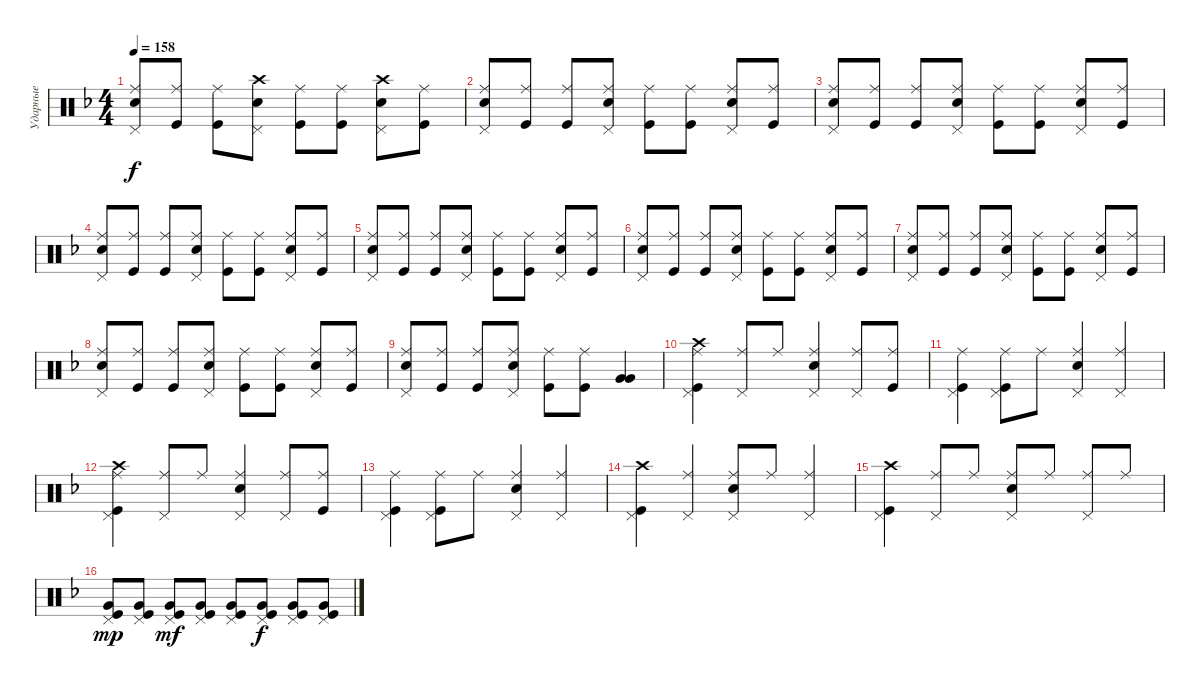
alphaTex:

\track ("Ударные" "Ударные") {instrument percussion}
\staff {score}
\articulation defaults
\ts (4 4)
\tempo 158
\clef neutral
\ks dminor
("Snare (hit) 2" "Ride (middle)" "Pedal Hi-Hat (hit)").8{dy f} ("Kick (hit)" "Ride (middle)").8 ("Kick (hit)" "Ride (middle)").8 ("Snare (hit) 2" "Crash high (hit)" "Pedal Hi-Hat (hit)").8 ("Kick (hit)" "Ride (middle)").8 ("Kick (hit)" "Ride (middle)").8 ("Snare (hit) 2" "Crash high (hit)" "Pedal Hi-Hat (hit)").8 ("Kick (hit)" "Ride (middle)").8 |
("Snare (hit) 2" "Ride (middle)" "Pedal Hi-Hat (hit)").8 ("Kick (hit)" "Ride (middle)").8 ("Kick (hit)" "Ride (middle)").8 ("Snare (hit) 2" "Ride (middle)" "Pedal Hi-Hat (hit)").8 ("Kick (hit)" "Ride (middle)").8 ("Kick (hit)" "Ride (middle)").8 ("Snare (hit) 2" "Ride (middle)" "Pedal Hi-Hat (hit)").8 ("Kick (hit)" "Ride (middle)").8 |
("Snare (hit) 2" "Ride (middle)" "Pedal Hi-Hat (hit)").8 ("Kick (hit)" "Ride (middle)").8 ("Kick (hit)" "Ride (middle)").8 ("Snare (hit) 2" "Ride (middle)" "Pedal Hi-Hat (hit)").8 ("Kick (hit)" "Ride (middle)").8 ("Kick (hit)" "Ride (middle)").8 ("Snare (hit) 2" "Ride (middle)" "Pedal Hi-Hat (hit)").8 ("Kick (hit)" "Ride (middle)").8 |
("Snare (hit) 2" "Ride (middle)" "Pedal Hi-Hat (hit)").8 ("Kick (hit)" "Ride (middle)").8 ("Kick (hit)" "Ride (middle)").8 ("Snare (hit) 2" "Ride (middle)" "Pedal Hi-Hat (hit)").8 ("Kick (hit)" "Ride (middle)").8 ("Kick (hit)" "Ride (middle)").8 ("Snare (hit) 2" "Ride (middle)" "Pedal Hi-Hat (hit)").8 ("Kick (hit)" "Ride (middle)").8 |
("Snare (hit) 2" "Ride (middle)" "Pedal Hi-Hat (hit)").8 ("Kick (hit)" "Ride (middle)").8 ("Kick (hit)" "Ride (middle)").8 ("Snare (hit) 2" "Ride (middle)" "Pedal Hi-Hat (hit)").8 ("Kick (hit)" "Ride (middle)").8 ("Kick (hit)" "Ride (middle)").8 ("Snare (hit) 2" "Ride (middle)" "Pedal Hi-Hat (hit)").8 ("Kick (hit)" "Ride (middle)").8 |
("Snare (hit) 2" "Ride (middle)" "Pedal Hi-Hat (hit)").8 ("Kick (hit)" "Ride (middle)").8 ("Kick (hit)" "Ride (middle)").8 ("Snare (hit) 2" "Ride (middle)" "Pedal Hi-Hat (hit)").8 ("Kick (hit)" "Ride (middle)").8 ("Kick (hit)" "Ride (middle)").8 ("Snare (hit) 2" "Ride (middle)" "Pedal Hi-Hat (hit)").8 ("Kick (hit)" "Ride (middle)").8 |
("Snare (hit) 2" "Ride (middle)" "Pedal Hi-Hat (hit)").8 ("Kick (hit)" "Ride (middle)").8 ("Kick (hit)" "Ride (middle)").8 ("Snare (hit) 2" "Ride (middle)" "Pedal Hi-Hat (hit)").8 ("Kick (hit)" "Ride (middle)").8 ("Kick (hit)" "Ride (middle)").8 ("Snare (hit) 2" "Ride (middle)" "Pedal Hi-Hat (hit)").8 ("Kick (hit)" "Ride (middle)").8 |
("Snare (hit) 2" "Ride (middle)" "Pedal Hi-Hat (hit)").8 ("Kick (hit)" "Ride (middle)").8 ("Kick (hit)" "Ride (middle)").8 ("Snare (hit) 2" "Ride (middle)" "Pedal Hi-Hat (hit)").8 ("Kick (hit)" "Ride (middle)").8 ("Kick (hit)" "Ride (middle)").8 ("Snare (hit) 2" "Ride (middle)" "Pedal Hi-Hat (hit)").8 ("Kick (hit)" "Ride (middle)").8 |
("Snare (hit) 2" "Ride (middle)" "Pedal Hi-Hat (hit)").8 ("Kick (hit)" "Ride (middle)").8 ("Kick (hit)" "Ride (middle)").8 ("Snare (hit) 2" "Ride (middle)" "Pedal Hi-Hat (hit)").8 ("Kick (hit)" "Ride (middle)").8 ("Kick (hit)" "Ride (middle)").8 ("Very Low Tom (hit)" "Very Low Tom (hit)").4{bd 240} |
("Kick (hit)" "Crash high (hit)" "Pedal Hi-Hat (hit)" "Ride (middle)").4 ("Ride (middle)" "Pedal Hi-Hat (hit)").8 "Ride (middle)".8 ("Snare (hit) 2" "Ride (middle)" "Pedal Hi-Hat (hit)").4 ("Ride (middle)" "Pedal Hi-Hat (hit)").8 ("Kick (hit)" "Ride (middle)").8 |
("Kick (hit)" "Pedal Hi-Hat (hit)" "Ride (middle)").4 ("Kick (hit)" "Pedal Hi-Hat (hit)" "Ride (middle)").8 "Ride (middle)".8 ("Snare (hit) 2" "Pedal Hi-Hat (hit)" "Ride (middle)").4 ("Ride (middle)" "Pedal Hi-Hat (hit)").4 |
("Kick (hit)" "Crash high (hit)" "Pedal Hi-Hat (hit)" "Ride (middle)").4 ("Ride (middle)" "Pedal Hi-Hat (hit)").8 "Ride (middle)".8 ("Snare (hit) 2" "Ride (middle)" "Pedal Hi-Hat (hit)").4 ("Ride (middle)" "Pedal Hi-Hat (hit)").8 ("Kick (hit)" "Ride (middle)").8 |
("Kick (hit)" "Pedal Hi-Hat (hit)" "Ride (middle)").4 ("Kick (hit)" "Pedal Hi-Hat (hit)" "Ride (middle)").8 "Ride (middle)".8 ("Snare (hit) 2" "Pedal Hi-Hat (hit)" "Ride (middle)").4 ("Ride (middle)" "Pedal Hi-Hat (hit)").4 |
("Kick (hit)" "Crash high (hit)" "Pedal Hi-Hat (hit)").4 ("Ride (middle)" "Pedal Hi-Hat (hit)").4 ("Snare (hit) 2" "Pedal Hi-Hat (hit)" "Ride (middle)").8 "Ride (middle)".8 ("Pedal Hi-Hat (hit)" "Ride (middle)").4 |
("Kick (hit)" "Crash high (hit)" "Pedal Hi-Hat (hit)").4 ("Ride (middle)" "Pedal Hi-Hat (hit)").8 "Ride (middle)".8 ("Snare (hit) 2" "Ride (middle)" "Pedal Hi-Hat (hit)").8 "Ride (middle)".8 ("Ride (middle)" "Pedal Hi-Hat (hit)").8 "Ride (middle)".8 |
("Kick (hit)" "Pedal Hi-Hat (hit)" "Very Low Tom (hit)").8{dy mp} ("Kick (hit)" "Pedal Hi-Hat (hit)" "Very Low Tom (hit)").8 ("Kick (hit)" "Pedal Hi-Hat (hit)" "Very Low Tom (hit)").8{dy mf} ("Kick (hit)" "Pedal Hi-Hat (hit)" "Very Low Tom (hit)").8 ("Kick (hit)" "Pedal Hi-Hat (hit)" "Very Low Tom (hit)").8 ("Kick (hit)" "Pedal Hi-Hat (hit)" "Very Low Tom (hit)").8{dy f} ("Kick (hit)" "Pedal Hi-Hat (hit)" "Very Low Tom (hit)").8 ("Kick (hit)" "Pedal Hi-Hat (hit)" "Very Low Tom (hit)").8
